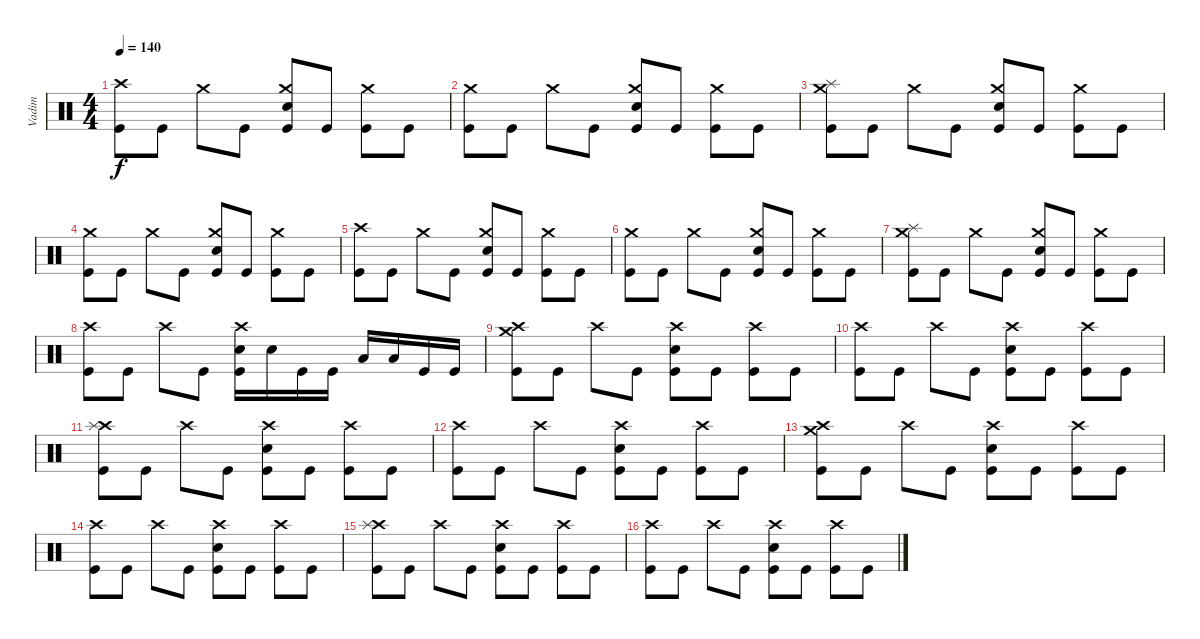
\track ("Vadim" "Vadim") {instrument percussion}
\staff {score}
\articulation defaults
\ts (4 4)
\tempo 140
\clef neutral
\ks c
("Crash high (hit)" "Kick (hit)").8{dy f} "Kick (hit)".8 "Crash medium (hit)".8 "Kick (hit)".8 ("Crash medium (hit)" "Electric Snare (hit)" "Kick (hit)").8 "Kick (hit)".8 ("Crash medium (hit)" "Kick (hit)").8 "Kick (hit)".8 |
("Crash medium (hit)" "Kick (hit)").8 "Kick (hit)".8 "Crash medium (hit)".8 "Kick (hit)".8 ("Crash medium (hit)" "Electric Snare (hit)" "Kick (hit)").8 "Kick (hit)".8 ("Crash medium (hit)" "Kick (hit)").8 "Kick (hit)".8 |
("Crash medium (hit)" "Splash (hit)" "Kick (hit)").8 "Kick (hit)".8 "Crash medium (hit)".8 "Kick (hit)".8 ("Crash medium (hit)" "Electric Snare (hit)" "Kick (hit)").8 "Kick (hit)".8 ("Crash medium (hit)" "Kick (hit)").8 "Kick (hit)".8 |
("Crash medium (hit)" "Kick (hit)").8 "Kick (hit)".8 "Crash medium (hit)".8 "Kick (hit)".8 ("Crash medium (hit)" "Electric Snare (hit)" "Kick (hit)").8 "Kick (hit)".8 ("Crash medium (hit)" "Kick (hit)").8 "Kick (hit)".8 |
("Crash high (hit)" "Kick (hit)").8 "Kick (hit)".8 "Crash medium (hit)".8 "Kick (hit)".8 ("Crash medium (hit)" "Electric Snare (hit)" "Kick (hit)").8 "Kick (hit)".8 ("Crash medium (hit)" "Kick (hit)").8 "Kick (hit)".8 |
("Crash medium (hit)" "Kick (hit)").8 "Kick (hit)".8 "Crash medium (hit)".8 "Kick (hit)".8 ("Crash medium (hit)" "Electric Snare (hit)" "Kick (hit)").8 "Kick (hit)".8 ("Crash medium (hit)" "Kick (hit)").8 "Kick (hit)".8 |
("Crash medium (hit)" "Splash (hit)" "Kick (hit)").8 "Kick (hit)".8 "Crash medium (hit)".8 "Kick (hit)".8 ("Crash medium (hit)" "Electric Snare (hit)" "Kick (hit)").8 "Kick (hit)".8 ("Crash medium (hit)" "Kick (hit)").8 "Kick (hit)".8 |
("Crash high (hit)" "Kick (hit)").8 "Kick (hit)".8 "Crash high (hit)".8 "Kick (hit)".8 ("Crash high (hit)" "Electric Snare (hit)" "Kick (hit)").16 "Electric Snare (hit)".16 "Kick (hit)".16 "Kick (hit)".16 "Low Floor Tom (hit)".16 "Low Floor Tom (hit)".16 "Kick (hit)".16 "Kick (hit)".16 |
("Crash high (hit)" "Crash medium (hit)" "Kick (hit)").8 "Kick (hit)".8 "Crash high (hit)".8 "Kick (hit)".8 ("Crash high (hit)" "Electric Snare (hit)" "Kick (hit)").8 "Kick (hit)".8 ("Crash high (hit)" "Kick (hit)").8 "Kick (hit)".8 |
("Crash high (hit)" "Kick (hit)").8 "Kick (hit)".8 "Crash high (hit)".8 "Kick (hit)".8 ("Crash high (hit)" "Electric Snare (hit)" "Kick (hit)").8 "Kick (hit)".8 ("Crash high (hit)" "Kick (hit)").8 "Kick (hit)".8 |
("Crash high (hit)" "Splash (hit)" "Kick (hit)").8 "Kick (hit)".8 "Crash high (hit)".8 "Kick (hit)".8 ("Crash high (hit)" "Electric Snare (hit)" "Kick (hit)").8 "Kick (hit)".8 ("Crash high (hit)" "Kick (hit)").8 "Kick (hit)".8 |
("Crash high (hit)" "Kick (hit)").8 "Kick (hit)".8 "Crash high (hit)".8 "Kick (hit)".8 ("Crash high (hit)" "Electric Snare (hit)" "Kick (hit)").8 "Kick (hit)".8 ("Crash high (hit)" "Kick (hit)").8 "Kick (hit)".8 |
("Crash high (hit)" "Crash medium (hit)" "Kick (hit)").8 "Kick (hit)".8 "Crash high (hit)".8 "Kick (hit)".8 ("Crash high (hit)" "Electric Snare (hit)" "Kick (hit)").8 "Kick (hit)".8 ("Crash high (hit)" "Kick (hit)").8 "Kick (hit)".8 |
("Crash high (hit)" "Kick (hit)").8 "Kick (hit)".8 "Crash high (hit)".8 "Kick (hit)".8 ("Crash high (hit)" "Electric Snare (hit)" "Kick (hit)").8 "Kick (hit)".8 ("Crash high (hit)" "Kick (hit)").8 "Kick (hit)".8 |
("Crash high (hit)" "Splash (hit)" "Kick (hit)").8 "Kick (hit)".8 "Crash high (hit)".8 "Kick (hit)".8 ("Crash high (hit)" "Electric Snare (hit)" "Kick (hit)").8 "Kick (hit)".8 ("Crash high (hit)" "Kick (hit)").8 "Kick (hit)".8 |
("Crash high (hit)" "Kick (hit)").8 "Kick (hit)".8 "Crash high (hit)".8 "Kick (hit)".8 ("Crash high (hit)" "Electric Snare (hit)" "Kick (hit)").8 "Kick (hit)".8 ("Crash high (hit)" "Kick (hit)").8 "Kick (hit)".8
